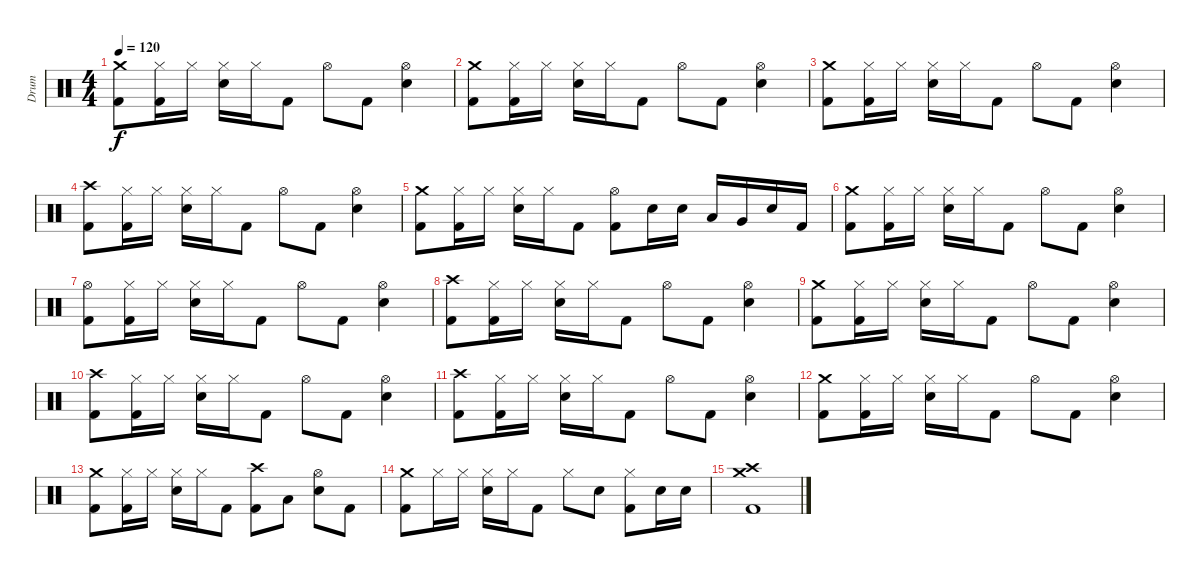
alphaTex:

\track ("Drum" "Drum") {instrument percussion}
\staff {score}
\articulation defaults
\ts (4 4)
\tempo 120
\clef neutral
\ks c
("Crash medium (hit)" "Kick (hit) 2").8{dy f} ("Hi-Hat (closed)" "Kick (hit) 2").16 "Hi-Hat (closed)".16 ("Hi-Hat (closed)" "Electric Snare (hit)").16 "Hi-Hat (closed)".16 "Kick (hit) 2".8 "Hi-Hat (open)".8 "Kick (hit) 2".8 ("Hi-Hat (open)" "Electric Snare (hit)").4 |
("Crash medium (hit)" "Kick (hit) 2").8 ("Hi-Hat (closed)" "Kick (hit) 2").16 "Hi-Hat (closed)".16 ("Hi-Hat (closed)" "Electric Snare (hit)").16 "Hi-Hat (closed)".16 "Kick (hit) 2".8 "Hi-Hat (open)".8 "Kick (hit) 2".8 ("Hi-Hat (open)" "Electric Snare (hit)").4 |
("Crash medium (hit)" "Kick (hit) 2").8 ("Hi-Hat (closed)" "Kick (hit) 2").16 "Hi-Hat (closed)".16 ("Hi-Hat (closed)" "Electric Snare (hit)").16 "Hi-Hat (closed)".16 "Kick (hit) 2".8 "Hi-Hat (open)".8 "Kick (hit) 2".8 ("Hi-Hat (open)" "Electric Snare (hit)").4 |
("Crash high (hit)" "Kick (hit) 2").8 ("Hi-Hat (closed)" "Kick (hit) 2").16 "Hi-Hat (closed)".16 ("Hi-Hat (closed)" "Electric Snare (hit)").16 "Hi-Hat (closed)".16 "Kick (hit) 2".8 "Hi-Hat (open)".8 "Kick (hit) 2".8 ("Hi-Hat (open)" "Electric Snare (hit)").4 |
("Crash medium (hit)" "Kick (hit) 2").8 ("Hi-Hat (closed)" "Kick (hit) 2").16 "Hi-Hat (closed)".16 ("Hi-Hat (closed)" "Electric Snare (hit)").16 "Hi-Hat (closed)".16 "Kick (hit) 2".8 ("Hi-Hat (open)" "Kick (hit) 2").8 "Electric Snare (hit)".16 "Electric Snare (hit)".16 "Low Tom (hit)".16 "Very Low Tom (hit)".16 "Electric Snare (hit)".16 "Kick (hit) 2".16 |
("Crash medium (hit)" "Kick (hit) 2").8 ("Hi-Hat (closed)" "Kick (hit) 2").16 "Hi-Hat (closed)".16 ("Hi-Hat (closed)" "Electric Snare (hit)").16 "Hi-Hat (closed)".16 "Kick (hit) 2".8 "Hi-Hat (open)".8 "Kick (hit) 2".8 ("Hi-Hat (open)" "Electric Snare (hit)").4 |
("Hi-Hat (open)" "Kick (hit) 2").8 ("Hi-Hat (closed)" "Kick (hit) 2").16 "Hi-Hat (closed)".16 ("Hi-Hat (closed)" "Electric Snare (hit)").16 "Hi-Hat (closed)".16 "Kick (hit) 2".8 "Hi-Hat (open)".8 "Kick (hit) 2".8 ("Hi-Hat (open)" "Electric Snare (hit)").4 |
("Crash high (hit)" "Kick (hit) 2").8 ("Hi-Hat (closed)" "Kick (hit) 2").16 "Hi-Hat (closed)".16 ("Hi-Hat (closed)" "Electric Snare (hit)").16 "Hi-Hat (closed)".16 "Kick (hit) 2".8 "Hi-Hat (open)".8 "Kick (hit) 2".8 ("Hi-Hat (open)" "Electric Snare (hit)").4 |
("Crash medium (hit)" "Kick (hit) 2").8 ("Hi-Hat (closed)" "Kick (hit) 2").16 "Hi-Hat (closed)".16 ("Hi-Hat (closed)" "Electric Snare (hit)").16 "Hi-Hat (closed)".16 "Kick (hit) 2".8 "Hi-Hat (open)".8 "Kick (hit) 2".8 ("Hi-Hat (open)" "Electric Snare (hit)").4 |
("Crash high (hit)" "Kick (hit) 2").8 ("Hi-Hat (closed)" "Kick (hit) 2").16 "Hi-Hat (closed)".16 ("Hi-Hat (closed)" "Electric Snare (hit)").16 "Hi-Hat (closed)".16 "Kick (hit) 2".8 "Hi-Hat (open)".8 "Kick (hit) 2".8 ("Hi-Hat (open)" "Electric Snare (hit)").4 |
("Crash high (hit)" "Kick (hit) 2").8 ("Hi-Hat (closed)" "Kick (hit) 2").16 "Hi-Hat (closed)".16 ("Hi-Hat (closed)" "Electric Snare (hit)").16 "Hi-Hat (closed)".16 "Kick (hit) 2".8 "Hi-Hat (open)".8 "Kick (hit) 2".8 ("Hi-Hat (open)" "Electric Snare (hit)").4 |
("Crash medium (hit)" "Kick (hit) 2").8 ("Hi-Hat (closed)" "Kick (hit) 2").16 "Hi-Hat (closed)".16 ("Hi-Hat (closed)" "Electric Snare (hit)").16 "Hi-Hat (closed)".16 "Kick (hit) 2".8 "Hi-Hat (open)".8 "Kick (hit) 2".8 ("Hi-Hat (open)" "Electric Snare (hit)").4 |
("Crash medium (hit)" "Kick (hit) 2").8 ("Hi-Hat (closed)" "Kick (hit) 2").16 "Hi-Hat (closed)".16 ("Hi-Hat (closed)" "Electric Snare (hit)").16 "Hi-Hat (closed)".16 "Kick (hit) 2".8 ("Crash high (hit)" "Kick (hit) 2").8 "Low Floor Tom (hit)".8 ("Hi-Hat (open)" "Electric Snare (hit)").8 "Kick (hit) 2".8 |
("Crash medium (hit)" "Kick (hit) 2").8 "Hi-Hat (closed)".16 "Hi-Hat (closed)".16 ("Hi-Hat (closed)" "Electric Snare (hit)").16 "Hi-Hat (closed)".16 "Kick (hit) 2".8 "Hi-Hat (closed)".8 "Electric Snare (hit)".8 ("Hi-Hat (closed)" "Kick (hit) 2").8 "Electric Snare (hit)".16 "Electric Snare (hit)".16 |
("Crash medium (hit)" "Crash high (hit)" "Kick (hit) 2").1
